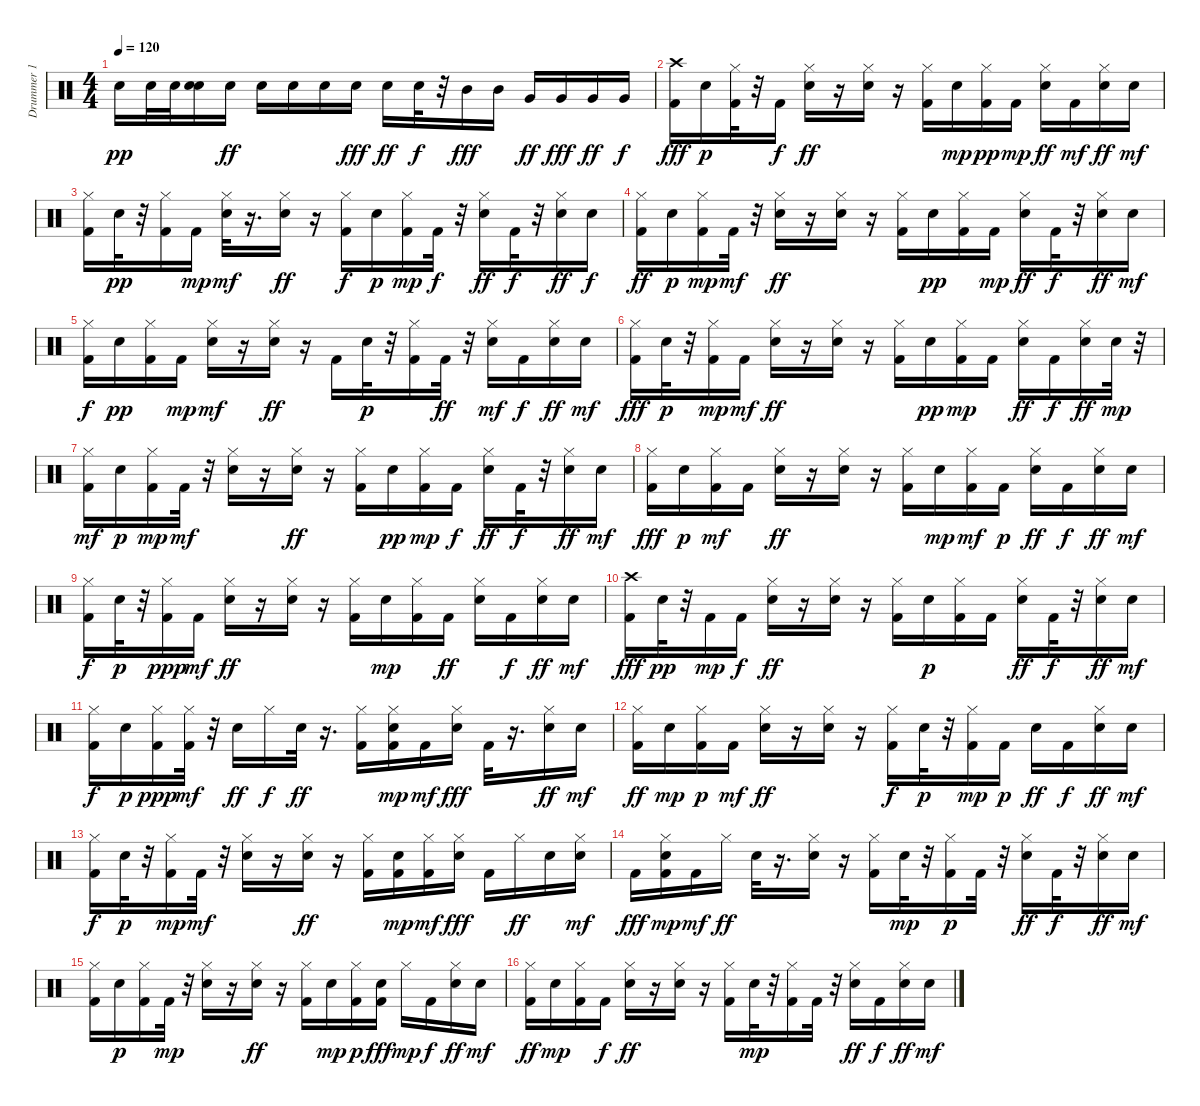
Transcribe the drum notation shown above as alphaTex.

\track ("Drummer 1" "Drummer 1") {instrument percussion}
\staff {score}
\articulation defaults
\ts (4 4)
\tempo 120
\clef neutral
\ks c "Electric Snare (hit)".16{dy pp} "Electric Snare (hit)".32 "Electric Snare (hit)".32
("Electric Snare (hit)" "Electric Snare (hit)").16 "Electric Snare (hit)".16{dy ff} "Electric Snare (hit)".16 "Electric Snare (hit)".16 "Electric Snare (hit)".16 "Electric Snare (hit)".16{dy fff} "Electric Snare (hit)".16{dy ff} "Electric Snare (hit)".32{dy f} r.32 "Mid Tom (hit)".16{dy fff} "Mid Tom (hit)".16 "Very Low Tom (hit)".16{dy ff} "Very Low Tom (hit)".16{dy fff} "Very Low Tom (hit)".16{dy ff} "Very Low Tom (hit)".16{dy f} |
("Crash high (hit)" "Kick (hit) 2").16{dy fff} "Electric Snare (hit)".16{dy p} ("Hi-Hat (closed)" "Kick (hit) 2").32 r.32 "Kick (hit) 2".16{dy f} ("Hi-Hat (closed)" "Electric Snare (hit)").16{dy ff} r.16 ("Hi-Hat (closed)" "Electric Snare (hit)").16 r.16 ("Hi-Hat (closed)" "Kick (hit) 2").16 "Electric Snare (hit)".16{dy mp} ("Kick (hit) 2" "Hi-Hat (closed)").16{dy pp} "Kick (hit) 2".16{dy mp} ("Hi-Hat (closed)" "Electric Snare (hit)").16{dy ff} "Kick (hit) 2".16{dy mf} ("Hi-Hat (closed)" "Electric Snare (hit)").16{dy ff} "Electric Snare (hit)".16{dy mf} |
("Hi-Hat (closed)" "Kick (hit) 2").16 "Electric Snare (hit)".32{dy pp} r.32 ("Kick (hit) 2" "Hi-Hat (closed)").16 "Kick (hit) 2".16{dy mp} ("Electric Snare (hit)" "Hi-Hat (closed)").32{dy mf} r.16{d} ("Hi-Hat (closed)" "Electric Snare (hit)").16{dy ff} r.16 ("Hi-Hat (closed)" "Kick (hit) 2").16{dy f} "Electric Snare (hit)".16{dy p} ("Hi-Hat (closed)" "Kick (hit) 2").16{dy mp} "Kick (hit) 2".32{dy f} r.32 ("Hi-Hat (closed)" "Electric Snare (hit)").16{dy ff} "Kick (hit) 2".32{dy f} r.32 ("Hi-Hat (closed)" "Electric Snare (hit)").16{dy ff} "Electric Snare (hit)".16{dy f} |
("Hi-Hat (closed)" "Kick (hit) 2").16{dy ff} "Electric Snare (hit)".16{dy p} ("Hi-Hat (closed)" "Kick (hit) 2").16{dy mp} "Kick (hit) 2".32{dy mf} r.32 ("Hi-Hat (closed)" "Electric Snare (hit)").16{dy ff} r.16 ("Hi-Hat (closed)" "Electric Snare (hit)").16 r.16 ("Hi-Hat (closed)" "Kick (hit) 2").16 "Electric Snare (hit)".16{dy pp} ("Kick (hit) 2" "Hi-Hat (closed)").16 "Kick (hit) 2".16{dy mp} ("Hi-Hat (closed)" "Electric Snare (hit)").16{dy ff} "Kick (hit) 2".32{dy f} r.32 ("Hi-Hat (closed)" "Electric Snare (hit)").16{dy ff} "Electric Snare (hit)".16{dy mf} |
("Hi-Hat (closed)" "Kick (hit) 2").16{dy f} "Electric Snare (hit)".16{dy pp} ("Kick (hit) 2" "Hi-Hat (closed)").16 "Kick (hit) 2".16{dy mp} ("Electric Snare (hit)" "Hi-Hat (closed)").16{dy mf} r.16 ("Hi-Hat (closed)" "Electric Snare (hit)").16{dy ff} r.16 "Kick (hit) 2".16 "Electric Snare (hit)".32{dy p} r.32 ("Hi-Hat (closed)" "Kick (hit) 2").16 "Kick (hit) 2".32{dy ff} r.32 ("Hi-Hat (closed)" "Electric Snare (hit)").16{dy mf} "Kick (hit) 2".16{dy f} ("Hi-Hat (closed)" "Electric Snare (hit)").16{dy ff} "Electric Snare (hit)".16{dy mf} |
("Hi-Hat (closed)" "Kick (hit) 2").16{dy fff} "Electric Snare (hit)".32{dy p} r.32 ("Hi-Hat (closed)" "Kick (hit) 2").16{dy mp} "Kick (hit) 2".16{dy mf} ("Hi-Hat (closed)" "Electric Snare (hit)").16{dy ff} r.16 ("Hi-Hat (closed)" "Electric Snare (hit)").16 r.16 ("Hi-Hat (closed)" "Kick (hit) 2").16 "Electric Snare (hit)".16{dy pp} ("Kick (hit) 2" "Hi-Hat (closed)").16{dy mp} "Kick (hit) 2".16 ("Hi-Hat (closed)" "Electric Snare (hit)").16{dy ff} "Kick (hit) 2".16{dy f} ("Hi-Hat (closed)" "Electric Snare (hit)").16{dy ff} "Electric Snare (hit)".32{dy mp} r.32 |
("Hi-Hat (closed)" "Kick (hit) 2").16{dy mf} "Electric Snare (hit)".16{dy p} ("Kick (hit) 2" "Hi-Hat (closed)").16{dy mp} "Kick (hit) 2".32{dy mf} r.32 ("Electric Snare (hit)" "Hi-Hat (closed)").16 r.16 ("Hi-Hat (closed)" "Electric Snare (hit)").16{dy ff} r.16 ("Hi-Hat (closed)" "Kick (hit) 2").16 "Electric Snare (hit)".16{dy pp} ("Hi-Hat (closed)" "Kick (hit) 2").16{dy mp} "Kick (hit) 2".16{dy f} ("Hi-Hat (closed)" "Electric Snare (hit)").16{dy ff} "Kick (hit) 2".32{dy f} r.32 ("Hi-Hat (closed)" "Electric Snare (hit)").16{dy ff} "Electric Snare (hit)".16{dy mf} |
("Hi-Hat (closed)" "Kick (hit) 2").16{dy fff} "Electric Snare (hit)".16{dy p} ("Hi-Hat (closed)" "Kick (hit) 2").16{dy mf} "Kick (hit) 2".16 ("Hi-Hat (closed)" "Electric Snare (hit)").16{dy ff} r.16 ("Hi-Hat (closed)" "Electric Snare (hit)").16 r.16 ("Hi-Hat (closed)" "Kick (hit) 2").16 "Electric Snare (hit)".16{dy mp} ("Kick (hit) 2" "Hi-Hat (closed)").16{dy mf} "Kick (hit) 2".16{dy p} ("Hi-Hat (closed)" "Electric Snare (hit)").16{dy ff} "Kick (hit) 2".16{dy f} ("Hi-Hat (closed)" "Electric Snare (hit)").16{dy ff} "Electric Snare (hit)".16{dy mf} |
("Hi-Hat (closed)" "Kick (hit) 2").16{dy f} "Electric Snare (hit)".32{dy p} r.32 ("Kick (hit) 2" "Hi-Hat (closed)").16{dy ppp} "Kick (hit) 2".16{dy mf} ("Electric Snare (hit)" "Hi-Hat (closed)").16{dy ff} r.16 ("Hi-Hat (closed)" "Electric Snare (hit)").16 r.16 ("Hi-Hat (closed)" "Kick (hit) 2").16 "Electric Snare (hit)".16{dy mp} ("Hi-Hat (closed)" "Kick (hit) 2").16 "Kick (hit) 2".16{dy ff} ("Hi-Hat (closed)" "Electric Snare (hit)").16 "Kick (hit) 2".16{dy f} ("Hi-Hat (closed)" "Electric Snare (hit)").16{dy ff} "Electric Snare (hit)".16{dy mf} |
("Crash high (hit)" "Kick (hit) 2").16{dy fff} "Electric Snare (hit)".32{dy pp} r.32 "Kick (hit) 2".16{dy mp} "Kick (hit) 2".16{dy f} ("Hi-Hat (closed)" "Electric Snare (hit)").16{dy ff} r.16 ("Hi-Hat (closed)" "Electric Snare (hit)").16 r.16 ("Hi-Hat (closed)" "Kick (hit) 2").16 "Electric Snare (hit)".16{dy p} ("Kick (hit) 2" "Hi-Hat (closed)").16 "Kick (hit) 2".16 ("Hi-Hat (closed)" "Electric Snare (hit)").16{dy ff} "Kick (hit) 2".32{dy f} r.32 ("Hi-Hat (closed)" "Electric Snare (hit)").16{dy ff} "Electric Snare (hit)".16{dy mf} |
("Hi-Hat (closed)" "Kick (hit) 2").16{dy f} "Electric Snare (hit)".16{dy p} ("Kick (hit) 2" "Hi-Hat (closed)").16{dy ppp} ("Hi-Hat (closed)" "Kick (hit) 2").32{dy mf} r.32 "Electric Snare (hit)".16{dy ff} "Hi-Hat (closed)".16{dy f} "Electric Snare (hit)".32{dy ff} r.16{d} ("Hi-Hat (closed)" "Kick (hit) 2").16 ("Hi-Hat (closed)" "Kick (hit) 2" "Electric Snare (hit)").16{dy mp} "Kick (hit) 2".16{dy mf} ("Hi-Hat (closed)" "Electric Snare (hit)").16{dy fff} "Kick (hit) 2".32 r.16{d} ("Hi-Hat (closed)" "Electric Snare (hit)").16{dy ff} "Electric Snare (hit)".16{dy mf} |
("Hi-Hat (closed)" "Kick (hit) 2").16{dy ff} "Electric Snare (hit)".16{dy mp} ("Hi-Hat (closed)" "Kick (hit) 2").16{dy p} "Kick (hit) 2".16{dy mf} ("Hi-Hat (closed)" "Electric Snare (hit)").16{dy ff} r.16 ("Hi-Hat (closed)" "Electric Snare (hit)").16 r.16 ("Hi-Hat (closed)" "Kick (hit) 2").16{dy f} "Electric Snare (hit)".32{dy p} r.32 ("Kick (hit) 2" "Hi-Hat (closed)").16{dy mp} "Kick (hit) 2".16{dy p} "Electric Snare (hit)".16{dy ff} "Kick (hit) 2".16{dy f} ("Hi-Hat (closed)" "Electric Snare (hit)").16{dy ff} "Electric Snare (hit)".16{dy mf} |
("Hi-Hat (closed)" "Kick (hit) 2").16{dy f} "Electric Snare (hit)".32{dy p} r.32 ("Kick (hit) 2" "Hi-Hat (closed)").16{dy mp} "Kick (hit) 2".32{dy mf} r.32 ("Electric Snare (hit)" "Hi-Hat (closed)").16 r.16 ("Hi-Hat (closed)" "Electric Snare (hit)").16{dy ff} r.16 ("Hi-Hat (closed)" "Kick (hit) 2").16 ("Kick (hit) 2" "Electric Snare (hit)").16{dy mp} ("Hi-Hat (closed)" "Kick (hit) 2").16{dy mf} ("Hi-Hat (closed)" "Electric Snare (hit)").16{dy fff} "Kick (hit) 2".16 "Hi-Hat (closed)".16{dy ff} "Electric Snare (hit)".16 ("Hi-Hat (closed)" "Electric Snare (hit)").16{dy mf} |
"Kick (hit) 2".16{dy fff} ("Hi-Hat (closed)" "Kick (hit) 2" "Electric Snare (hit)").16{dy mp} "Kick (hit) 2".16{dy mf} "Hi-Hat (closed)".16{dy ff} "Electric Snare (hit)".32 r.16{d} ("Hi-Hat (closed)" "Electric Snare (hit)").16 r.16 ("Hi-Hat (closed)" "Kick (hit) 2").16 "Electric Snare (hit)".32{dy mp} r.32 ("Kick (hit) 2" "Hi-Hat (closed)").16{dy p} "Kick (hit) 2".32 r.32 ("Hi-Hat (closed)" "Electric Snare (hit)").16{dy ff} "Kick (hit) 2".32{dy f} r.32 ("Hi-Hat (closed)" "Electric Snare (hit)").16{dy ff} "Electric Snare (hit)".16{dy mf} |
("Hi-Hat (closed)" "Kick (hit) 2").16 "Electric Snare (hit)".16{dy p} ("Kick (hit) 2" "Hi-Hat (closed)").16 "Kick (hit) 2".32{dy mp} r.32 ("Electric Snare (hit)" "Hi-Hat (closed)").16 r.16 ("Hi-Hat (closed)" "Electric Snare (hit)").16{dy ff} r.16 ("Hi-Hat (closed)" "Kick (hit) 2").16 "Electric Snare (hit)".16{dy mp} ("Hi-Hat (closed)" "Kick (hit) 2").16{dy p} ("Kick (hit) 2" "Electric Snare (hit)").16{dy fff} "Hi-Hat (closed)".16{dy mp} "Kick (hit) 2".16{dy f} ("Hi-Hat (closed)" "Electric Snare (hit)").16{dy ff} "Electric Snare (hit)".16{dy mf} |
("Hi-Hat (closed)" "Kick (hit) 2").16{dy ff} "Electric Snare (hit)".16{dy mp} ("Hi-Hat (closed)" "Kick (hit) 2").16 "Kick (hit) 2".16{dy f} ("Hi-Hat (closed)" "Electric Snare (hit)").16{dy ff} r.16 ("Hi-Hat (closed)" "Electric Snare (hit)").16 r.16 ("Hi-Hat (closed)" "Kick (hit) 2").16 "Electric Snare (hit)".32{dy mp} r.32 ("Kick (hit) 2" "Hi-Hat (closed)").16 "Kick (hit) 2".32 r.32 ("Hi-Hat (closed)" "Electric Snare (hit)").16{dy ff} "Kick (hit) 2".16{dy f} ("Hi-Hat (closed)" "Electric Snare (hit)").16{dy ff} "Electric Snare (hit)".16{dy mf}
